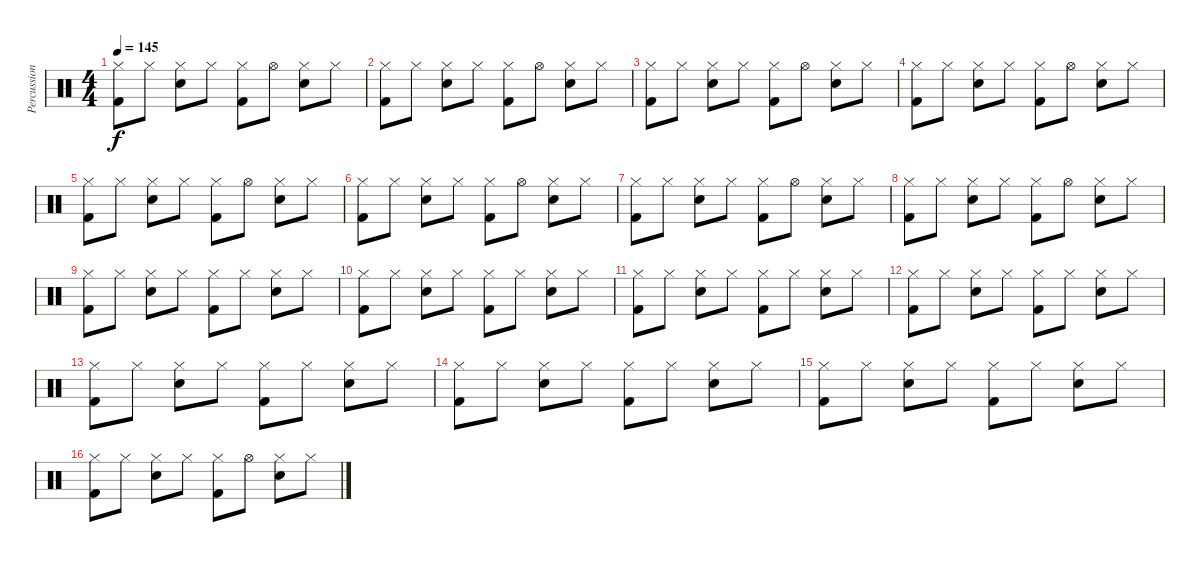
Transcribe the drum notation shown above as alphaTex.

\track ("Percussion" "Percussion") {instrument percussion}
\staff {score}
\articulation defaults
\ts (4 4)
\tempo 145
\clef neutral
\ks c
("Hi-Hat (closed)" "Kick (hit) 2").8{dy f} "Hi-Hat (closed)".8 ("Hi-Hat (closed)" "Snare (hit) 2").8 "Hi-Hat (closed)".8 ("Hi-Hat (closed)" "Kick (hit) 2").8 "Hi-Hat (open)".8 ("Hi-Hat (closed)" "Snare (hit) 2").8 "Hi-Hat (closed)".8 |
("Hi-Hat (closed)" "Kick (hit) 2").8 "Hi-Hat (closed)".8 ("Hi-Hat (closed)" "Snare (hit) 2").8 "Hi-Hat (closed)".8 ("Hi-Hat (closed)" "Kick (hit) 2").8 "Hi-Hat (open)".8 ("Hi-Hat (closed)" "Snare (hit) 2").8 "Hi-Hat (closed)".8 |
("Hi-Hat (closed)" "Kick (hit) 2").8 "Hi-Hat (closed)".8 ("Hi-Hat (closed)" "Snare (hit) 2").8 "Hi-Hat (closed)".8 ("Hi-Hat (closed)" "Kick (hit) 2").8 "Hi-Hat (open)".8 ("Hi-Hat (closed)" "Snare (hit) 2").8 "Hi-Hat (closed)".8 |
("Hi-Hat (closed)" "Kick (hit) 2").8 "Hi-Hat (closed)".8 ("Hi-Hat (closed)" "Snare (hit) 2").8 "Hi-Hat (closed)".8 ("Hi-Hat (closed)" "Kick (hit) 2").8 "Hi-Hat (open)".8 ("Hi-Hat (closed)" "Snare (hit) 2").8 "Hi-Hat (closed)".8 |
("Hi-Hat (closed)" "Kick (hit) 2").8 "Hi-Hat (closed)".8 ("Hi-Hat (closed)" "Snare (hit) 2").8 "Hi-Hat (closed)".8 ("Hi-Hat (closed)" "Kick (hit) 2").8 "Hi-Hat (open)".8 ("Hi-Hat (closed)" "Snare (hit) 2").8 "Hi-Hat (closed)".8 |
("Hi-Hat (closed)" "Kick (hit) 2").8 "Hi-Hat (closed)".8 ("Hi-Hat (closed)" "Snare (hit) 2").8 "Hi-Hat (closed)".8 ("Hi-Hat (closed)" "Kick (hit) 2").8 "Hi-Hat (open)".8 ("Hi-Hat (closed)" "Snare (hit) 2").8 "Hi-Hat (closed)".8 |
("Hi-Hat (closed)" "Kick (hit) 2").8 "Hi-Hat (closed)".8 ("Hi-Hat (closed)" "Snare (hit) 2").8 "Hi-Hat (closed)".8 ("Hi-Hat (closed)" "Kick (hit) 2").8 "Hi-Hat (open)".8 ("Hi-Hat (closed)" "Snare (hit) 2").8 "Hi-Hat (closed)".8 |
("Hi-Hat (closed)" "Kick (hit) 2").8 "Hi-Hat (closed)".8 ("Hi-Hat (closed)" "Snare (hit) 2").8 "Hi-Hat (closed)".8 ("Hi-Hat (closed)" "Kick (hit) 2").8 "Hi-Hat (open)".8 ("Hi-Hat (closed)" "Snare (hit) 2").8 "Hi-Hat (closed)".8 |
("Hi-Hat (closed)" "Kick (hit) 2").8 "Hi-Hat (closed)".8 ("Hi-Hat (closed)" "Snare (hit) 2").8 "Hi-Hat (closed)".8 ("Hi-Hat (closed)" "Kick (hit) 2").8 "Hi-Hat (closed)".8 ("Hi-Hat (closed)" "Snare (hit) 2").8 "Hi-Hat (closed)".8 |
("Hi-Hat (closed)" "Kick (hit) 2").8 "Hi-Hat (closed)".8 ("Hi-Hat (closed)" "Snare (hit) 2").8 "Hi-Hat (closed)".8 ("Hi-Hat (closed)" "Kick (hit) 2").8 "Hi-Hat (closed)".8 ("Hi-Hat (closed)" "Snare (hit) 2").8 "Hi-Hat (closed)".8 |
("Hi-Hat (closed)" "Kick (hit) 2").8 "Hi-Hat (closed)".8 ("Hi-Hat (closed)" "Snare (hit) 2").8 "Hi-Hat (closed)".8 ("Hi-Hat (closed)" "Kick (hit) 2").8 "Hi-Hat (closed)".8 ("Hi-Hat (closed)" "Snare (hit) 2").8 "Hi-Hat (closed)".8 |
("Hi-Hat (closed)" "Kick (hit) 2").8 "Hi-Hat (closed)".8 ("Hi-Hat (closed)" "Snare (hit) 2").8 "Hi-Hat (closed)".8 ("Hi-Hat (closed)" "Kick (hit) 2").8 "Hi-Hat (closed)".8 ("Hi-Hat (closed)" "Snare (hit) 2").8 "Hi-Hat (closed)".8 |
("Hi-Hat (closed)" "Kick (hit) 2").8 "Hi-Hat (closed)".8 ("Hi-Hat (closed)" "Snare (hit) 2").8 "Hi-Hat (closed)".8 ("Hi-Hat (closed)" "Kick (hit) 2").8 "Hi-Hat (closed)".8 ("Hi-Hat (closed)" "Snare (hit) 2").8 "Hi-Hat (closed)".8 |
("Hi-Hat (closed)" "Kick (hit) 2").8 "Hi-Hat (closed)".8 ("Hi-Hat (closed)" "Snare (hit) 2").8 "Hi-Hat (closed)".8 ("Hi-Hat (closed)" "Kick (hit) 2").8 "Hi-Hat (closed)".8 ("Hi-Hat (closed)" "Snare (hit) 2").8 "Hi-Hat (closed)".8 |
("Hi-Hat (closed)" "Kick (hit) 2").8 "Hi-Hat (closed)".8 ("Hi-Hat (closed)" "Snare (hit) 2").8 "Hi-Hat (closed)".8 ("Hi-Hat (closed)" "Kick (hit) 2").8 "Hi-Hat (closed)".8 ("Hi-Hat (closed)" "Snare (hit) 2").8 "Hi-Hat (closed)".8 |
("Hi-Hat (closed)" "Kick (hit) 2").8 "Hi-Hat (closed)".8 ("Hi-Hat (closed)" "Snare (hit) 2").8 "Hi-Hat (closed)".8 ("Hi-Hat (closed)" "Kick (hit) 2").8 "Hi-Hat (open)".8 ("Hi-Hat (closed)" "Snare (hit) 2").8 "Hi-Hat (closed)".8
